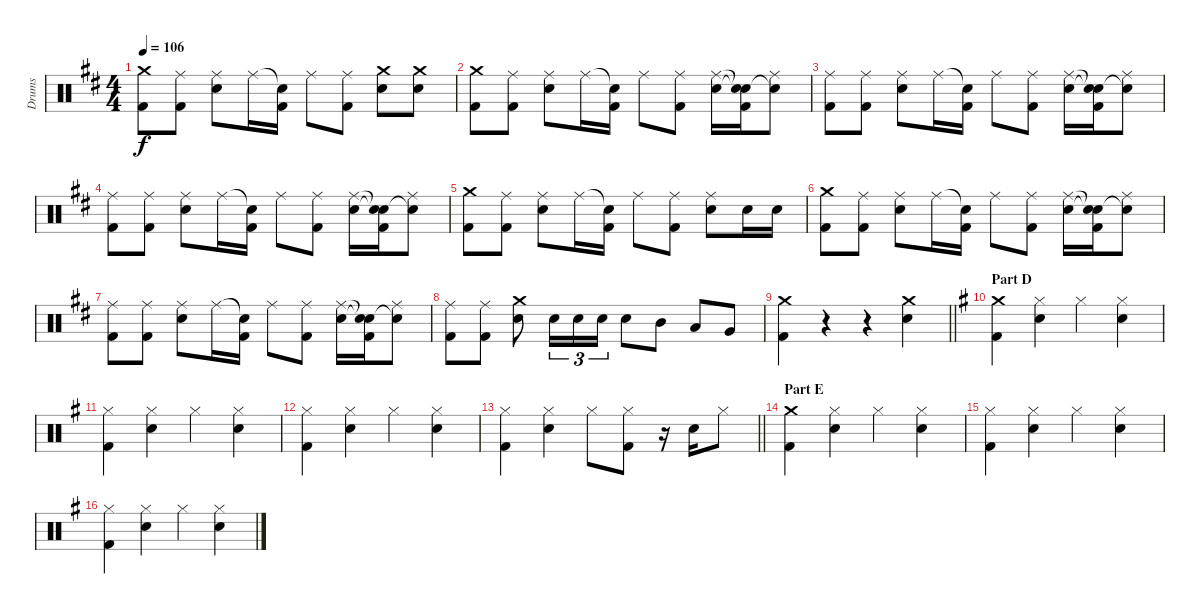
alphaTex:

\track ("Drums" "Drums") {instrument percussion}
\staff {score}
\articulation defaults
\ts (4 4)
\tempo 106
\clef neutral
\ks d
("Crash medium (hit)" "Kick (hit) 2").8{dy f} ("Ride (middle)" "Kick (hit) 2").8 ("Ride (middle)" "Electric Snare (hit)").8 "Ride (middle)".16 ("Snare (hit)"{t} "Kick (hit) 2").16 "Ride (middle)".8 ("Ride (middle)" "Kick (hit) 2").8 ("Crash medium (hit)" "Electric Snare (hit)").8 ("Crash medium (hit)" "Electric Snare (hit)").8 |
("Crash medium (hit)" "Kick (hit) 2").8 ("Ride (middle)" "Kick (hit) 2").8 ("Ride (middle)" "Electric Snare (hit)").8 "Ride (middle)".16 ("Snare (hit)"{t} "Kick (hit) 2").16 "Ride (middle)".8 ("Ride (middle)" "Kick (hit) 2").8 ("Ride (middle)" "Electric Snare (hit)").16 ("Snare (hit)"{t} "Snare (hit)"{t} "Kick (hit) 2").16 ("Ride (middle)" "Snare (hit)"{t}).8 |
("Ride (middle)" "Kick (hit) 2").8 ("Ride (middle)" "Kick (hit) 2").8 ("Ride (middle)" "Electric Snare (hit)").8 "Ride (middle)".16 ("Snare (hit)"{t} "Kick (hit) 2").16 "Ride (middle)".8 ("Ride (middle)" "Kick (hit) 2").8 ("Ride (middle)" "Electric Snare (hit)").16 ("Snare (hit)"{t} "Snare (hit)"{t} "Kick (hit) 2").16 ("Ride (middle)" "Snare (hit)"{t}).8 |
("Ride (middle)" "Kick (hit) 2").8 ("Ride (middle)" "Kick (hit) 2").8 ("Ride (middle)" "Electric Snare (hit)").8 "Ride (middle)".16 ("Snare (hit)"{t} "Kick (hit) 2").16 "Ride (middle)".8 ("Ride (middle)" "Kick (hit) 2").8 ("Ride (middle)" "Electric Snare (hit)").16 ("Snare (hit)"{t} "Snare (hit)"{t} "Kick (hit) 2").16 ("Ride (middle)" "Snare (hit)"{t}).8 |
("Crash medium (hit)" "Kick (hit) 2").8 ("Ride (middle)" "Kick (hit) 2").8 ("Ride (middle)" "Electric Snare (hit)").8 "Ride (middle)".16 ("Snare (hit)"{t} "Kick (hit) 2").16 "Ride (middle)".8 ("Ride (middle)" "Kick (hit) 2").8 ("Ride (middle)" "Electric Snare (hit)").8 "Electric Snare (hit)".16 "Electric Snare (hit)".16 |
("Crash medium (hit)" "Kick (hit) 2").8 ("Ride (middle)" "Kick (hit) 2").8 ("Ride (middle)" "Electric Snare (hit)").8 "Ride (middle)".16 ("Snare (hit)"{t} "Kick (hit) 2").16 "Ride (middle)".8 ("Ride (middle)" "Kick (hit) 2").8 ("Ride (middle)" "Electric Snare (hit)").16 ("Snare (hit)"{t} "Snare (hit)"{t} "Kick (hit) 2").16 ("Ride (middle)" "Snare (hit)"{t}).8 |
("Ride (middle)" "Kick (hit) 2").8 ("Ride (middle)" "Kick (hit) 2").8 ("Ride (middle)" "Electric Snare (hit)").8 "Ride (middle)".16 ("Snare (hit)"{t} "Kick (hit) 2").16 "Ride (middle)".8 ("Ride (middle)" "Kick (hit) 2").8 ("Ride (middle)" "Electric Snare (hit)").16 ("Snare (hit)"{t} "Snare (hit)"{t} "Kick (hit) 2").16 ("Ride (middle)" "Snare (hit)"{t}).8 |
("Ride (middle)" "Kick (hit) 2").8 ("Ride (middle)" "Kick (hit) 2").8 ("Crash medium (hit)" "Electric Snare (hit)").8 "Electric Snare (hit)".16{tu (3 2)} "Electric Snare (hit)".16{tu (3 2)} "Electric Snare (hit)".16{tu (3 2)} "Electric Snare (hit)".8 "Mid Tom (hit)".8 "Low Tom (hit)".8 "Very Low Tom (hit)".8 |
\barLineRight lightlight
("Crash medium (hit)" "Kick (hit) 2").4 r.4 r.4 ("Crash medium (hit)" "Electric Snare (hit)").4 |
\section ("" "Part D")
\ks g
("Crash medium (hit)" "Kick (hit) 2").4 ("Hi-Hat (closed)" "Electric Snare (hit)").4 "Hi-Hat (closed)".4 ("Hi-Hat (closed)" "Electric Snare (hit)").4 |
("Hi-Hat (closed)" "Kick (hit) 2").4 ("Hi-Hat (closed)" "Electric Snare (hit)").4 "Hi-Hat (closed)".4 ("Hi-Hat (closed)" "Electric Snare (hit)").4 |
("Hi-Hat (closed)" "Kick (hit) 2").4 ("Hi-Hat (closed)" "Electric Snare (hit)").4 "Hi-Hat (closed)".4 ("Hi-Hat (closed)" "Electric Snare (hit)").4 |
\barLineRight lightlight
("Hi-Hat (closed)" "Kick (hit) 2").4 ("Hi-Hat (closed)" "Electric Snare (hit)").4 "Hi-Hat (closed)".8 ("Hi-Hat (closed)" "Kick (hit) 2").8 r.16 "Electric Snare (hit)".16 "Hi-Hat (closed)".8 |
\section ("" "Part E")
("Crash medium (hit)" "Kick (hit) 2").4 ("Hi-Hat (closed)" "Electric Snare (hit)").4 "Hi-Hat (closed)".4 ("Hi-Hat (closed)" "Electric Snare (hit)").4 |
("Hi-Hat (closed)" "Kick (hit) 2").4 ("Hi-Hat (closed)" "Electric Snare (hit)").4 "Hi-Hat (closed)".4 ("Hi-Hat (closed)" "Electric Snare (hit)").4 |
("Hi-Hat (closed)" "Kick (hit) 2").4 ("Hi-Hat (closed)" "Electric Snare (hit)").4 "Hi-Hat (closed)".4 ("Hi-Hat (closed)" "Electric Snare (hit)").4
